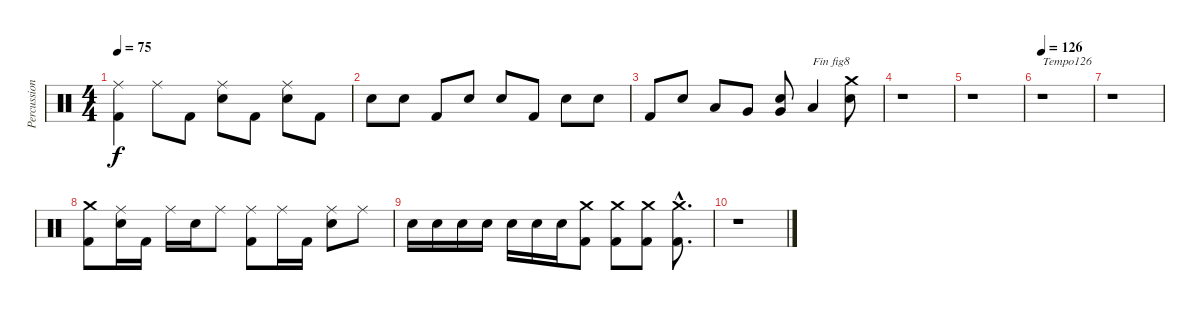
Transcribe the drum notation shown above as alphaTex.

\track ("Percussions" "Percussion") {instrument percussion}
\staff {score}
\articulation defaults
\ts (4 4)
\tempo 75
\clef neutral
\ks c
("Kick (hit) 2" "Ride (middle)").4{dy f} "Ride (middle)".8 "Kick (hit) 2".8 ("Electric Snare (hit)" "Ride (middle)").8 "Kick (hit) 2".8 ("Electric Snare (hit)" "Ride (middle)").8 "Kick (hit) 2".8 |
"Electric Snare (hit)".8 "Electric Snare (hit)".8 "Kick (hit) 2".8 "Electric Snare (hit)".8 "Electric Snare (hit)".8 "Kick (hit) 2".8 "Electric Snare (hit)".8 "Electric Snare (hit)".8 |
"Kick (hit) 2".8 "Electric Snare (hit)".8 "Low Tom (hit)".8 "Very Low Tom (hit)".8 ("Electric Snare (hit)" "Very Low Tom (hit)").8 "Low Tom (hit)".4{txt "Fin fig8"} ("Electric Snare (hit)" "Crash medium (hit)").8 |
r.1 |
r.1 |
\tempo 126
r.1{txt "Tempo126"} |
r.1 |
("Kick (hit) 2" "Crash medium (hit)").8 ("Electric Snare (hit)" "Ride (middle)").16 "Kick (hit) 2".16 "Ride (middle)".16 "Electric Snare (hit)".16 "Ride (middle)".8 ("Kick (hit) 2" "Ride (middle)").8 "Ride (middle)".16 "Kick (hit) 2".16 ("Electric Snare (hit)" "Ride (middle)").8 "Ride (middle)".8 |
"Electric Snare (hit)".16 "Electric Snare (hit)".16 "Electric Snare (hit)".16 "Electric Snare (hit)".16 "Electric Snare (hit)".16 "Electric Snare (hit)".16 "Electric Snare (hit)".16 ("Kick (hit) 2" "Crash medium (hit)").8 ("Kick (hit) 2" "Crash medium (hit)").8 ("Kick (hit) 2" "Crash medium (hit)").8 ("Kick (hit) 2"{hac} "Crash medium (hit)"{hac}).8{d} |
r.1
